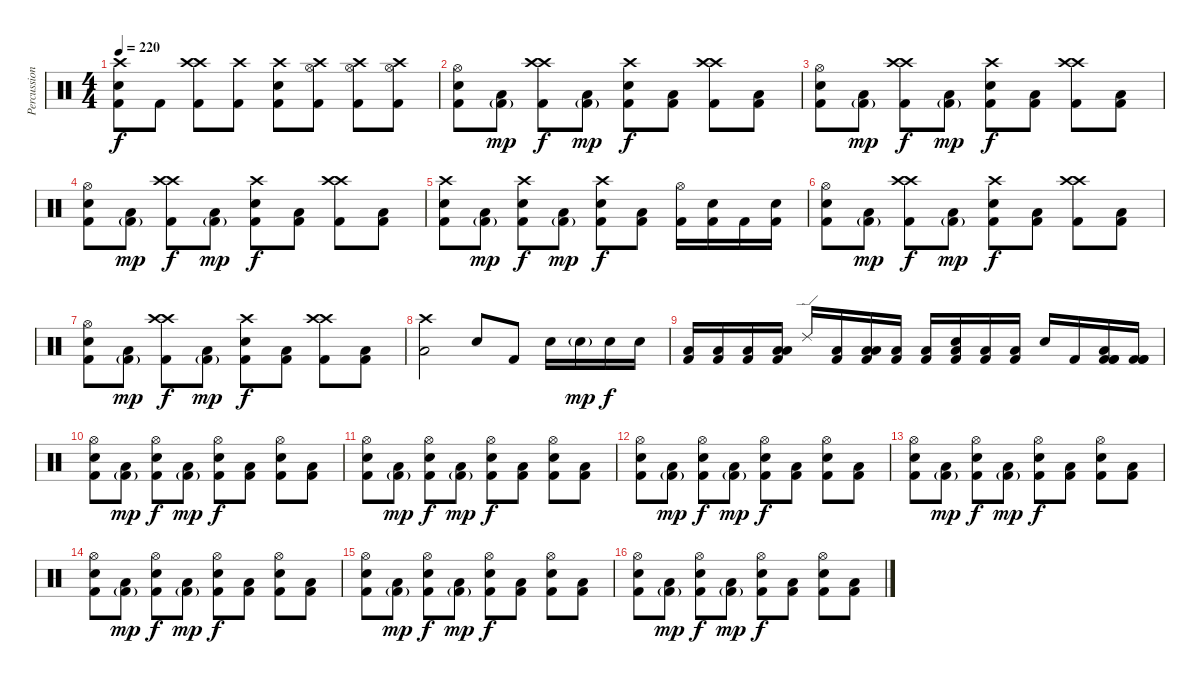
\track ("Percussions" "Percussion") {instrument percussion}
\staff {score}
\articulation defaults
\ts (4 4)
\tempo 220
\clef neutral
\ks c
("Crash high (hit)" "Electric Snare (hit)" "Kick (hit) 2").8{dy f} "Kick (hit) 2".8 ("Crash high (hit)" "Crash high (hit)" "Kick (hit) 2").8 ("Crash high (hit)" "Kick (hit) 2").8 ("Crash high (hit)" "Electric Snare (hit)" "Kick (hit) 2").8 ("Crash high (hit)" "Hi-Hat (open)" "Kick (hit) 2").8 ("Crash high (hit)" "Hi-Hat (open)" "Kick (hit) 2").8 ("Crash high (hit)" "Hi-Hat (open)" "Kick (hit) 2").8 |
("Hi-Hat (open)" "Electric Snare (hit)" "Kick (hit) 2").8 ("Low Tom (hit)" "Kick (hit) 2"{g}).8{dy mp} ("Crash high (hit)" "Crash high (hit)" "Kick (hit) 2").8{dy f} ("Low Tom (hit)" "Kick (hit) 2"{g}).8{dy mp} ("Crash high (hit)" "Electric Snare (hit)" "Kick (hit) 2").8{dy f} ("Low Tom (hit)" "Kick (hit) 2").8 ("Crash high (hit)" "Crash high (hit)" "Kick (hit) 2").8 ("Low Tom (hit)" "Kick (hit) 2").8 |
("Hi-Hat (open)" "Electric Snare (hit)" "Kick (hit) 2").8 ("Low Tom (hit)" "Kick (hit) 2"{g}).8{dy mp} ("Crash high (hit)" "Crash high (hit)" "Kick (hit) 2").8{dy f} ("Low Tom (hit)" "Kick (hit) 2"{g}).8{dy mp} ("Crash high (hit)" "Electric Snare (hit)" "Kick (hit) 2").8{dy f} ("Low Tom (hit)" "Kick (hit) 2").8 ("Crash high (hit)" "Crash high (hit)" "Kick (hit) 2").8 ("Low Tom (hit)" "Kick (hit) 2").8 |
("Hi-Hat (open)" "Electric Snare (hit)" "Kick (hit) 2").8 ("Low Tom (hit)" "Kick (hit) 2"{g}).8{dy mp} ("Crash high (hit)" "Crash high (hit)" "Kick (hit) 2").8{dy f} ("Low Tom (hit)" "Kick (hit) 2"{g}).8{dy mp} ("Crash high (hit)" "Electric Snare (hit)" "Kick (hit) 2").8{dy f} ("Low Tom (hit)" "Kick (hit) 2").8 ("Crash high (hit)" "Crash high (hit)" "Kick (hit) 2").8 ("Low Tom (hit)" "Kick (hit) 2").8 |
("Crash high (hit)" "Electric Snare (hit)" "Kick (hit) 2").8 ("Low Tom (hit)" "Kick (hit) 2"{g}).8{dy mp} ("Crash high (hit)" "Electric Snare (hit)" "Kick (hit) 2").8{dy f} ("Low Tom (hit)" "Kick (hit) 2"{g}).8{dy mp} ("Crash high (hit)" "Electric Snare (hit)" "Kick (hit) 2").8{dy f} ("Low Tom (hit)" "Kick (hit) 2").8 ("Hi-Hat (open)" "Kick (hit) 2").16 ("Electric Snare (hit)" "Kick (hit) 2").16 "Kick (hit) 2".16 ("Electric Snare (hit)" "Kick (hit) 2").16 |
("Hi-Hat (open)" "Electric Snare (hit)" "Kick (hit) 2").8 ("Low Tom (hit)" "Kick (hit) 2"{g}).8{dy mp} ("Crash high (hit)" "Crash high (hit)" "Kick (hit) 2").8{dy f} ("Low Tom (hit)" "Kick (hit) 2"{g}).8{dy mp} ("Crash high (hit)" "Electric Snare (hit)" "Kick (hit) 2").8{dy f} ("Low Tom (hit)" "Kick (hit) 2").8 ("Crash high (hit)" "Crash high (hit)" "Kick (hit) 2").8 ("Low Tom (hit)" "Kick (hit) 2").8 |
("Hi-Hat (open)" "Electric Snare (hit)" "Kick (hit) 2").8 ("Low Tom (hit)" "Kick (hit) 2"{g}).8{dy mp} ("Crash high (hit)" "Crash high (hit)" "Kick (hit) 2").8{dy f} ("Low Tom (hit)" "Kick (hit) 2"{g}).8{dy mp} ("Crash high (hit)" "Electric Snare (hit)" "Kick (hit) 2").8{dy f} ("Low Tom (hit)" "Kick (hit) 2").8 ("Crash high (hit)" "Crash high (hit)" "Kick (hit) 2").8 ("Low Tom (hit)" "Kick (hit) 2").8 |
("Crash high (hit)" "Low Tom (hit)").2 "Electric Snare (hit)".8 "Kick (hit) 2".8 "Electric Snare (hit)".16 "Electric Snare (hit)"{g}.16{dy mp} "Electric Snare (hit)".16{dy f} "Electric Snare (hit)".16 |
("Low Tom (hit)" "Kick (hit) 2").16 ("Low Tom (hit)" "Kick (hit) 2").16 ("Low Tom (hit)" "Kick (hit) 2").16 ("Low Tom (hit)" "Low Tom (hit)" "Kick (hit) 2").16 "Ride (edge) 2".16 ("Low Tom (hit)" "Kick (hit) 2").16 ("Low Tom (hit)" "Low Tom (hit)" "Kick (hit) 2").16 ("Low Tom (hit)" "Kick (hit) 2").16 ("Low Tom (hit)" "Kick (hit) 2").16 ("Low Tom (hit)" "Electric Snare (hit)" "Kick (hit) 2").16 ("Low Tom (hit)" "Kick (hit) 2").16 ("Low Tom (hit)" "Kick (hit) 2").16 "Electric Snare (hit)".16 "Kick (hit) 2".16 ("Low Tom (hit)" "Kick (hit) 2" "Kick (hit) 2" "Kick (hit) 2").16 ("Kick (hit) 2" "Kick (hit) 2" "Kick (hit) 2").16 |
("Hi-Hat (open)" "Electric Snare (hit)" "Kick (hit) 2").8 ("Low Tom (hit)" "Kick (hit) 2"{g}).8{dy mp} ("Hi-Hat (open)" "Electric Snare (hit)" "Kick (hit) 2").8{dy f} ("Low Tom (hit)" "Kick (hit) 2"{g}).8{dy mp} ("Hi-Hat (open)" "Electric Snare (hit)" "Kick (hit) 2").8{dy f} ("Low Tom (hit)" "Kick (hit) 2").8 ("Hi-Hat (open)" "Electric Snare (hit)" "Kick (hit) 2").8 ("Low Tom (hit)" "Kick (hit) 2").8 |
("Hi-Hat (open)" "Electric Snare (hit)" "Kick (hit) 2").8 ("Low Tom (hit)" "Kick (hit) 2"{g}).8{dy mp} ("Hi-Hat (open)" "Electric Snare (hit)" "Kick (hit) 2").8{dy f} ("Low Tom (hit)" "Kick (hit) 2"{g}).8{dy mp} ("Hi-Hat (open)" "Electric Snare (hit)" "Kick (hit) 2").8{dy f} ("Low Tom (hit)" "Kick (hit) 2").8 ("Hi-Hat (open)" "Electric Snare (hit)" "Kick (hit) 2").8 ("Low Tom (hit)" "Kick (hit) 2").8 |
("Hi-Hat (open)" "Electric Snare (hit)" "Kick (hit) 2").8 ("Low Tom (hit)" "Kick (hit) 2"{g}).8{dy mp} ("Hi-Hat (open)" "Electric Snare (hit)" "Kick (hit) 2").8{dy f} ("Low Tom (hit)" "Kick (hit) 2"{g}).8{dy mp} ("Hi-Hat (open)" "Electric Snare (hit)" "Kick (hit) 2").8{dy f} ("Low Tom (hit)" "Kick (hit) 2").8 ("Hi-Hat (open)" "Electric Snare (hit)" "Kick (hit) 2").8 ("Low Tom (hit)" "Kick (hit) 2").8 |
("Hi-Hat (open)" "Electric Snare (hit)" "Kick (hit) 2").8 ("Low Tom (hit)" "Kick (hit) 2"{g}).8{dy mp} ("Hi-Hat (open)" "Electric Snare (hit)" "Kick (hit) 2").8{dy f} ("Low Tom (hit)" "Kick (hit) 2"{g}).8{dy mp} ("Hi-Hat (open)" "Electric Snare (hit)" "Kick (hit) 2").8{dy f} ("Low Tom (hit)" "Kick (hit) 2").8 ("Hi-Hat (open)" "Electric Snare (hit)" "Kick (hit) 2").8 ("Low Tom (hit)" "Kick (hit) 2").8 |
("Hi-Hat (open)" "Electric Snare (hit)" "Kick (hit) 2").8 ("Low Tom (hit)" "Kick (hit) 2"{g}).8{dy mp} ("Hi-Hat (open)" "Electric Snare (hit)" "Kick (hit) 2").8{dy f} ("Low Tom (hit)" "Kick (hit) 2"{g}).8{dy mp} ("Hi-Hat (open)" "Electric Snare (hit)" "Kick (hit) 2").8{dy f} ("Low Tom (hit)" "Kick (hit) 2").8 ("Hi-Hat (open)" "Electric Snare (hit)" "Kick (hit) 2").8 ("Low Tom (hit)" "Kick (hit) 2").8 |
("Hi-Hat (open)" "Electric Snare (hit)" "Kick (hit) 2").8 ("Low Tom (hit)" "Kick (hit) 2"{g}).8{dy mp} ("Hi-Hat (open)" "Electric Snare (hit)" "Kick (hit) 2").8{dy f} ("Low Tom (hit)" "Kick (hit) 2"{g}).8{dy mp} ("Hi-Hat (open)" "Electric Snare (hit)" "Kick (hit) 2").8{dy f} ("Low Tom (hit)" "Kick (hit) 2").8 ("Hi-Hat (open)" "Electric Snare (hit)" "Kick (hit) 2").8 ("Low Tom (hit)" "Kick (hit) 2").8 |
("Hi-Hat (open)" "Electric Snare (hit)" "Kick (hit) 2").8 ("Low Tom (hit)" "Kick (hit) 2"{g}).8{dy mp} ("Hi-Hat (open)" "Electric Snare (hit)" "Kick (hit) 2").8{dy f} ("Low Tom (hit)" "Kick (hit) 2"{g}).8{dy mp} ("Hi-Hat (open)" "Electric Snare (hit)" "Kick (hit) 2").8{dy f} ("Low Tom (hit)" "Kick (hit) 2").8 ("Hi-Hat (open)" "Electric Snare (hit)" "Kick (hit) 2").8 ("Low Tom (hit)" "Kick (hit) 2").8
